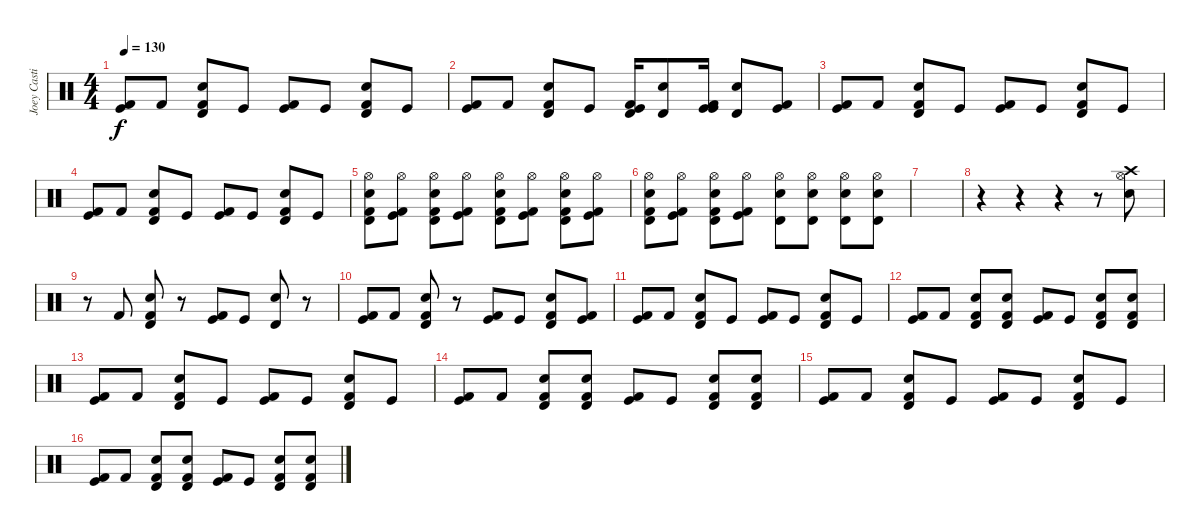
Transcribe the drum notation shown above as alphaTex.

\track ("Joey Castillo  (Batterie)" "Joey Casti") {instrument percussion}
\staff {score}
\articulation defaults
\ts (4 4)
\tempo 130
\clef neutral
\ks c
("Kick (hit) 2" "Kick (hit)").8{dy f} "Kick (hit) 2".8 ("Kick (hit) 2" "Timbale high (hit)" "Electric Snare (hit)").8 "Kick (hit)".8 ("Kick (hit) 2" "Kick (hit)").8 "Kick (hit)".8 ("Kick (hit) 2" "Timbale high (hit)" "Electric Snare (hit)").8 "Kick (hit)".8 |
("Kick (hit) 2" "Kick (hit)").8 "Kick (hit) 2".8 ("Kick (hit) 2" "Timbale high (hit)" "Electric Snare (hit)").8 "Kick (hit)".8 ("Timbale high (hit)" "Kick (hit)" "Kick (hit) 2").16 ("Timbale high (hit)" "Electric Snare (hit)").8 ("Kick (hit)" "Kick (hit)" "Kick (hit) 2").16 ("Timbale high (hit)" "Electric Snare (hit)").8 ("Kick (hit) 2" "Kick (hit)").8 |
("Kick (hit) 2" "Kick (hit)").8 "Kick (hit) 2".8 ("Kick (hit) 2" "Timbale high (hit)" "Electric Snare (hit)").8 "Kick (hit)".8 ("Kick (hit) 2" "Kick (hit)").8 "Kick (hit)".8 ("Kick (hit) 2" "Timbale high (hit)" "Electric Snare (hit)").8 "Kick (hit)".8 |
("Kick (hit) 2" "Kick (hit)").8 "Kick (hit) 2".8 ("Kick (hit) 2" "Timbale high (hit)" "Electric Snare (hit)").8 "Kick (hit)".8 ("Kick (hit) 2" "Kick (hit)").8 "Kick (hit)".8 ("Kick (hit) 2" "Timbale high (hit)" "Electric Snare (hit)").8 "Kick (hit)".8 |
("Timbale high (hit)" "Electric Snare (hit)" "Kick (hit) 2" "Hi-Hat (open)").8 ("Kick (hit)" "Kick (hit) 2" "Hi-Hat (open)").8 ("Timbale high (hit)" "Electric Snare (hit)" "Kick (hit) 2" "Hi-Hat (open)").8 ("Kick (hit)" "Kick (hit) 2" "Hi-Hat (open)").8 ("Timbale high (hit)" "Electric Snare (hit)" "Kick (hit) 2" "Hi-Hat (open)").8 ("Kick (hit)" "Kick (hit) 2" "Hi-Hat (open)").8 ("Timbale high (hit)" "Electric Snare (hit)" "Kick (hit) 2" "Hi-Hat (open)").8 ("Kick (hit)" "Kick (hit) 2" "Hi-Hat (open)").8 |
("Timbale high (hit)" "Electric Snare (hit)" "Kick (hit) 2" "Hi-Hat (open)").8 ("Kick (hit)" "Kick (hit) 2" "Hi-Hat (open)").8 ("Timbale high (hit)" "Electric Snare (hit)" "Kick (hit) 2" "Hi-Hat (open)").8 ("Kick (hit)" "Kick (hit) 2" "Hi-Hat (open)").8 ("Timbale high (hit)" "Electric Snare (hit)" "Hi-Hat (open)").8 ("Timbale high (hit)" "Electric Snare (hit)" "Hi-Hat (open)").8 ("Timbale high (hit)" "Electric Snare (hit)" "Hi-Hat (open)").8 ("Timbale high (hit)" "Electric Snare (hit)" "Hi-Hat (open)").8 |
\section ("" "")
|
r.4 r.4 r.4 r.8 ("Electric Snare (hit)" "Crash high (hit)" "Hi-Hat (open)").8 |
r.8 "Kick (hit) 2".8 ("Kick (hit) 2" "Timbale high (hit)" "Electric Snare (hit)").8 r.8 ("Kick (hit) 2" "Kick (hit)").8 "Kick (hit)".8 ("Timbale high (hit)" "Electric Snare (hit)").8 r.8 |
("Kick (hit) 2" "Kick (hit)").8 "Kick (hit) 2".8 ("Kick (hit) 2" "Timbale high (hit)" "Electric Snare (hit)").8 r.8 ("Kick (hit) 2" "Kick (hit)").8 "Kick (hit)".8 ("Kick (hit) 2" "Timbale high (hit)" "Electric Snare (hit)").8 ("Kick (hit)" "Kick (hit) 2").8 |
("Kick (hit) 2" "Kick (hit)").8 "Kick (hit) 2".8 ("Kick (hit) 2" "Timbale high (hit)" "Electric Snare (hit)").8 "Kick (hit)".8 ("Kick (hit) 2" "Kick (hit)").8 "Kick (hit)".8 ("Kick (hit) 2" "Timbale high (hit)" "Electric Snare (hit)").8 "Kick (hit)".8 |
("Kick (hit) 2" "Kick (hit)").8 "Kick (hit) 2".8 ("Kick (hit) 2" "Timbale high (hit)" "Electric Snare (hit)").8 ("Kick (hit) 2" "Timbale high (hit)" "Electric Snare (hit)").8 ("Kick (hit) 2" "Kick (hit)").8 "Kick (hit)".8 ("Kick (hit) 2" "Timbale high (hit)" "Electric Snare (hit)").8 ("Kick (hit) 2" "Timbale high (hit)" "Electric Snare (hit)").8 |
("Kick (hit) 2" "Kick (hit)").8 "Kick (hit) 2".8 ("Kick (hit) 2" "Timbale high (hit)" "Electric Snare (hit)").8 "Kick (hit)".8 ("Kick (hit) 2" "Kick (hit)").8 "Kick (hit)".8 ("Kick (hit) 2" "Timbale high (hit)" "Electric Snare (hit)").8 "Kick (hit)".8 |
("Kick (hit) 2" "Kick (hit)").8 "Kick (hit) 2".8 ("Kick (hit) 2" "Timbale high (hit)" "Electric Snare (hit)").8 ("Kick (hit) 2" "Timbale high (hit)" "Electric Snare (hit)").8 ("Kick (hit) 2" "Kick (hit)").8 "Kick (hit)".8 ("Kick (hit) 2" "Timbale high (hit)" "Electric Snare (hit)").8 ("Kick (hit) 2" "Timbale high (hit)" "Electric Snare (hit)").8 |
("Kick (hit) 2" "Kick (hit)").8 "Kick (hit) 2".8 ("Kick (hit) 2" "Timbale high (hit)" "Electric Snare (hit)").8 "Kick (hit)".8 ("Kick (hit) 2" "Kick (hit)").8 "Kick (hit)".8 ("Kick (hit) 2" "Timbale high (hit)" "Electric Snare (hit)").8 "Kick (hit)".8 |
("Kick (hit) 2" "Kick (hit)").8 "Kick (hit) 2".8 ("Kick (hit) 2" "Timbale high (hit)" "Electric Snare (hit)").8 ("Kick (hit) 2" "Timbale high (hit)" "Electric Snare (hit)").8 ("Kick (hit) 2" "Kick (hit)").8 "Kick (hit)".8 ("Kick (hit) 2" "Timbale high (hit)" "Electric Snare (hit)").8 ("Kick (hit) 2" "Timbale high (hit)" "Electric Snare (hit)").8
